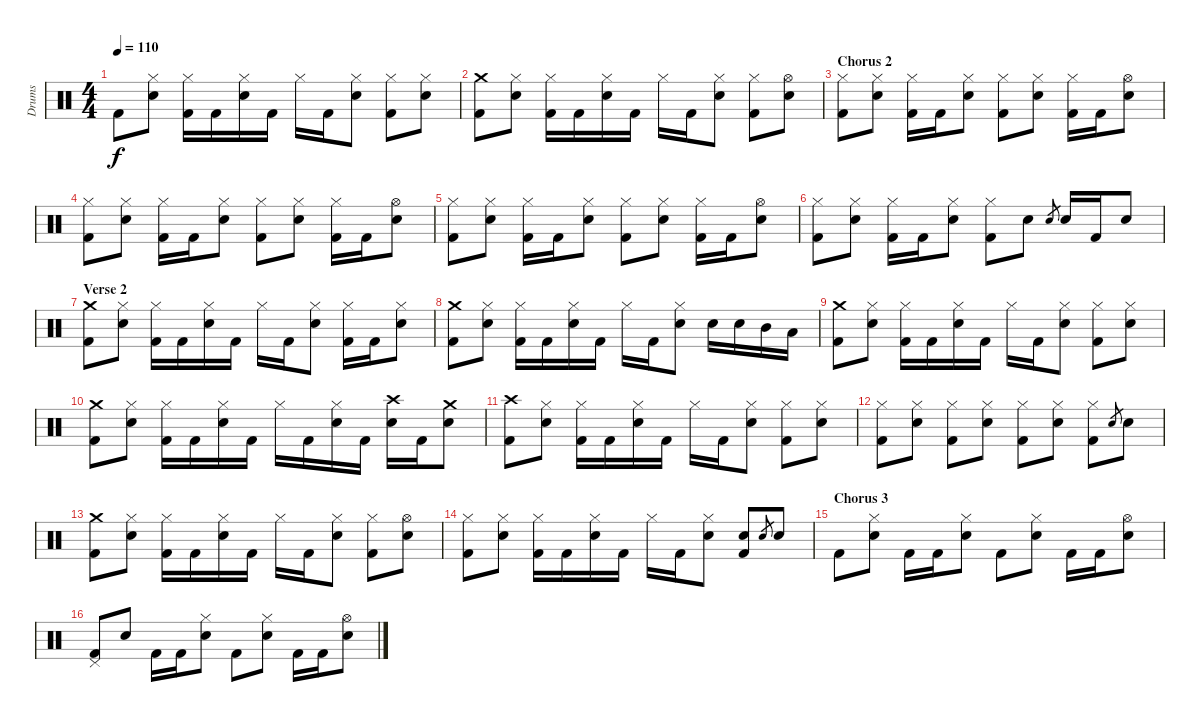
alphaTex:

\track ("Drums" "Drums") {instrument percussion}
\staff {score}
\articulation defaults
\ts (4 4)
\tempo 110
\clef neutral
\ks c "Kick (hit) 2".8{dy f}
("Hi-Hat (closed)" "Snare (hit) 2").8 ("Hi-Hat (closed)" "Kick (hit) 2").16 "Kick (hit) 2".16 ("Hi-Hat (closed)" "Snare (hit) 2").16 "Kick (hit) 2".16 "Hi-Hat (closed)".16 "Kick (hit) 2".16 ("Hi-Hat (closed)" "Snare (hit) 2").8 ("Hi-Hat (closed)" "Kick (hit) 2").8 ("Hi-Hat (closed)" "Snare (hit) 2").8 |
("Crash medium (hit)" "Kick (hit) 2").8 ("Hi-Hat (closed)" "Snare (hit) 2").8 ("Hi-Hat (closed)" "Kick (hit) 2").16 "Kick (hit) 2".16 ("Hi-Hat (closed)" "Snare (hit) 2").16 "Kick (hit) 2".16 "Hi-Hat (closed)".16 "Kick (hit) 2".16 ("Hi-Hat (closed)" "Snare (hit) 2").8 ("Hi-Hat (closed)" "Kick (hit) 2").8 ("Hi-Hat (open)" "Snare (hit) 2").8 |
\section ("" "Chorus 2")
("Hi-Hat (closed)" "Kick (hit) 2").8 ("Hi-Hat (closed)" "Snare (hit) 2").8 ("Hi-Hat (closed)" "Kick (hit) 2").16 "Kick (hit) 2".16 ("Hi-Hat (closed)" "Snare (hit) 2").8 ("Hi-Hat (closed)" "Kick (hit) 2").8 ("Hi-Hat (closed)" "Snare (hit) 2").8 ("Hi-Hat (closed)" "Kick (hit) 2").16 "Kick (hit) 2".16 ("Hi-Hat (open)" "Snare (hit) 2").8 |
("Hi-Hat (closed)" "Kick (hit) 2").8 ("Hi-Hat (closed)" "Snare (hit) 2").8 ("Hi-Hat (closed)" "Kick (hit) 2").16 "Kick (hit) 2".16 ("Hi-Hat (closed)" "Snare (hit) 2").8 ("Hi-Hat (closed)" "Kick (hit) 2").8 ("Hi-Hat (closed)" "Snare (hit) 2").8 ("Hi-Hat (closed)" "Kick (hit) 2").16 "Kick (hit) 2".16 ("Hi-Hat (open)" "Snare (hit) 2").8 |
("Hi-Hat (closed)" "Kick (hit) 2").8 ("Hi-Hat (closed)" "Snare (hit) 2").8 ("Hi-Hat (closed)" "Kick (hit) 2").16 "Kick (hit) 2".16 ("Hi-Hat (closed)" "Snare (hit) 2").8 ("Hi-Hat (closed)" "Kick (hit) 2").8 ("Hi-Hat (closed)" "Snare (hit) 2").8 ("Hi-Hat (closed)" "Kick (hit) 2").16 "Kick (hit) 2".16 ("Hi-Hat (open)" "Snare (hit) 2").8 |
("Hi-Hat (closed)" "Kick (hit) 2").8 ("Hi-Hat (closed)" "Snare (hit) 2").8 ("Hi-Hat (closed)" "Kick (hit) 2").16 "Kick (hit) 2".16 ("Hi-Hat (closed)" "Snare (hit) 2").8 ("Hi-Hat (closed)" "Kick (hit) 2").8 "Snare (hit) 2".8 "Snare (hit) 2".8{gr} "Snare (hit) 2".16 "Kick (hit) 2".16 "Snare (hit) 2".8 |
\section ("" "Verse 2")
("Crash medium (hit)" "Kick (hit) 2").8 ("Hi-Hat (closed)" "Snare (hit) 2").8 ("Hi-Hat (closed)" "Kick (hit) 2").16 "Kick (hit) 2".16 ("Hi-Hat (closed)" "Snare (hit) 2").16 "Kick (hit) 2".16 "Hi-Hat (closed)".16 "Kick (hit) 2".16 ("Hi-Hat (closed)" "Snare (hit) 2").8 ("Hi-Hat (closed)" "Kick (hit) 2").16 "Kick (hit) 2".16 ("Hi-Hat (closed)" "Snare (hit) 2").8 |
("Crash medium (hit)" "Kick (hit) 2").8 ("Hi-Hat (closed)" "Snare (hit) 2").8 ("Hi-Hat (closed)" "Kick (hit) 2").16 "Kick (hit) 2".16 ("Hi-Hat (closed)" "Snare (hit) 2").16 "Kick (hit) 2".16 "Hi-Hat (closed)".16 "Kick (hit) 2".16 ("Hi-Hat (closed)" "Snare (hit) 2").8 "Snare (hit) 2".16 "Snare (hit) 2".16 "Mid Tom (hit)".16 "Low Tom (hit)".16 |
("Crash medium (hit)" "Kick (hit) 2").8 ("Hi-Hat (closed)" "Snare (hit) 2").8 ("Hi-Hat (closed)" "Kick (hit) 2").16 "Kick (hit) 2".16 ("Hi-Hat (closed)" "Snare (hit) 2").16 "Kick (hit) 2".16 "Hi-Hat (closed)".16 "Kick (hit) 2".16 ("Hi-Hat (closed)" "Snare (hit) 2").8 ("Hi-Hat (closed)" "Kick (hit) 2").8 ("Hi-Hat (closed)" "Snare (hit) 2").8 |
("Crash medium (hit)" "Kick (hit) 2").8 ("Hi-Hat (closed)" "Snare (hit) 2").8 ("Hi-Hat (closed)" "Kick (hit) 2").16 "Kick (hit) 2".16 ("Hi-Hat (closed)" "Snare (hit) 2").16 "Kick (hit) 2".16 "Hi-Hat (closed)".16 "Kick (hit) 2".16 ("Hi-Hat (closed)" "Snare (hit) 2").16 "Kick (hit) 2".16 ("Crash high (hit)" "Snare (hit) 2").16 "Kick (hit) 2".16 ("Crash medium (hit)" "Snare (hit) 2").8 |
("Crash high (hit)" "Kick (hit) 2").8 ("Hi-Hat (closed)" "Snare (hit) 2").8 ("Hi-Hat (closed)" "Kick (hit) 2").16 "Kick (hit) 2".16 ("Hi-Hat (closed)" "Snare (hit) 2").16 "Kick (hit) 2".16 "Hi-Hat (closed)".16 "Kick (hit) 2".16 ("Hi-Hat (closed)" "Snare (hit) 2").8 ("Hi-Hat (closed)" "Kick (hit) 2").8 ("Hi-Hat (closed)" "Snare (hit) 2").8 |
("Hi-Hat (closed)" "Kick (hit) 2").8 ("Hi-Hat (closed)" "Snare (hit) 2").8 ("Hi-Hat (closed)" "Kick (hit) 2").8 ("Hi-Hat (closed)" "Snare (hit) 2").8 ("Hi-Hat (closed)" "Kick (hit) 2").8 ("Hi-Hat (closed)" "Snare (hit) 2").8 ("Hi-Hat (closed)" "Kick (hit) 2").8 "Snare (hit) 2".8{gr} "Snare (hit) 2".8 |
("Crash medium (hit)" "Kick (hit) 2").8 ("Hi-Hat (closed)" "Snare (hit) 2").8 ("Hi-Hat (closed)" "Kick (hit) 2").16 "Kick (hit) 2".16 ("Hi-Hat (closed)" "Snare (hit) 2").16 "Kick (hit) 2".16 "Hi-Hat (closed)".16 "Kick (hit) 2".16 ("Hi-Hat (closed)" "Snare (hit) 2").8 ("Hi-Hat (closed)" "Kick (hit) 2").8 ("Hi-Hat (open)" "Snare (hit) 2").8 |
("Hi-Hat (closed)" "Kick (hit) 2").8 ("Hi-Hat (closed)" "Snare (hit) 2").8 ("Hi-Hat (closed)" "Kick (hit) 2").16 "Kick (hit) 2".16 ("Hi-Hat (closed)" "Snare (hit) 2").16 "Kick (hit) 2".16 "Hi-Hat (closed)".16 "Kick (hit) 2".16 ("Hi-Hat (closed)" "Snare (hit) 2").8 ("Snare (hit) 2" "Kick (hit) 2").8 "Snare (hit) 2".8{gr} "Snare (hit) 2".8 |
\section ("" "Chorus 3")
"Kick (hit) 2".8 ("Hi-Hat (closed)" "Snare (hit) 2").8 "Kick (hit) 2".16 "Kick (hit) 2".16 ("Hi-Hat (closed)" "Snare (hit) 2").8 "Kick (hit) 2".8 ("Hi-Hat (closed)" "Snare (hit) 2").8 "Kick (hit) 2".16 "Kick (hit) 2".16 ("Hi-Hat (open)" "Snare (hit) 2").8 |
("Pedal Hi-Hat (hit)" "Kick (hit) 2").8 "Snare (hit) 2".8 "Kick (hit) 2".16 "Kick (hit) 2".16 ("Hi-Hat (closed)" "Snare (hit) 2").8 "Kick (hit) 2".8 ("Hi-Hat (closed)" "Snare (hit) 2").8 "Kick (hit) 2".16 "Kick (hit) 2".16 ("Hi-Hat (open)" "Snare (hit) 2").8
